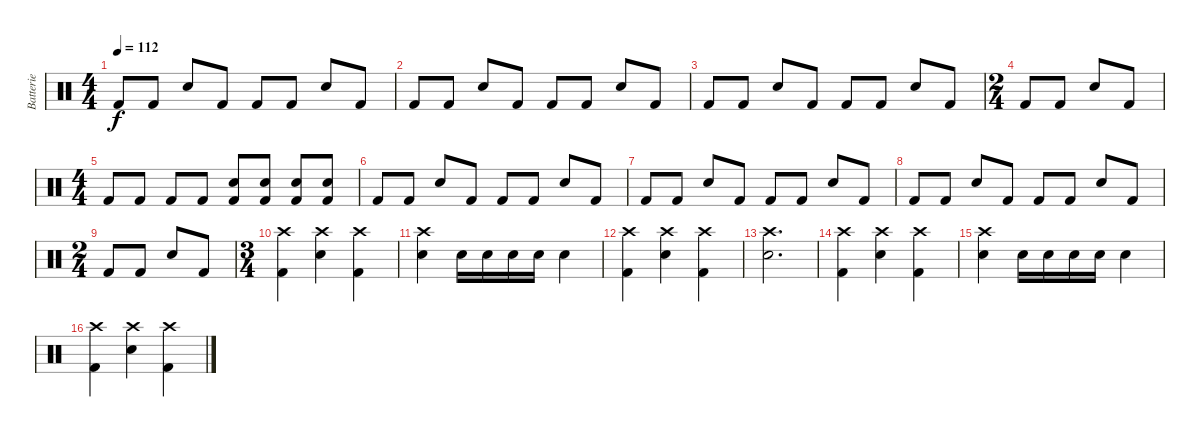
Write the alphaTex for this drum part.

\track ("Batterie" "Batterie") {instrument percussion}
\staff {score}
\articulation defaults
\ts (4 4)
\tempo 112
\clef neutral
\ks c "Kick (hit) 2".8{dy f} "Kick (hit) 2".8 "Snare (hit) 2".8 "Kick (hit) 2".8 "Kick (hit) 2".8 "Kick (hit) 2".8 "Snare (hit) 2".8 "Kick (hit) 2".8
|
"Kick (hit) 2".8 "Kick (hit) 2".8 "Snare (hit) 2".8 "Kick (hit) 2".8 "Kick (hit) 2".8 "Kick (hit) 2".8 "Snare (hit) 2".8 "Kick (hit) 2".8 |
"Kick (hit) 2".8 "Kick (hit) 2".8 "Snare (hit) 2".8 "Kick (hit) 2".8 "Kick (hit) 2".8 "Kick (hit) 2".8 "Snare (hit) 2".8 "Kick (hit) 2".8 |
\ts (2 4)
"Kick (hit) 2".8 "Kick (hit) 2".8 "Snare (hit) 2".8 "Kick (hit) 2".8 |
\ts (4 4)
"Kick (hit) 2".8 "Kick (hit) 2".8 "Kick (hit) 2".8 "Kick (hit) 2".8 ("Snare (hit) 2" "Kick (hit) 2").8 ("Snare (hit) 2" "Kick (hit) 2").8 ("Snare (hit) 2" "Kick (hit) 2").8 ("Snare (hit) 2" "Kick (hit) 2").8 |
"Kick (hit) 2".8 "Kick (hit) 2".8 "Snare (hit) 2".8 "Kick (hit) 2".8 "Kick (hit) 2".8 "Kick (hit) 2".8 "Snare (hit) 2".8 "Kick (hit) 2".8 |
"Kick (hit) 2".8 "Kick (hit) 2".8 "Snare (hit) 2".8 "Kick (hit) 2".8 "Kick (hit) 2".8 "Kick (hit) 2".8 "Snare (hit) 2".8 "Kick (hit) 2".8 |
"Kick (hit) 2".8 "Kick (hit) 2".8 "Snare (hit) 2".8 "Kick (hit) 2".8 "Kick (hit) 2".8 "Kick (hit) 2".8 "Snare (hit) 2".8 "Kick (hit) 2".8 |
\ts (2 4)
"Kick (hit) 2".8 "Kick (hit) 2".8 "Snare (hit) 2".8 "Kick (hit) 2".8 |
\ts (3 4)
("Crash high (hit)" "Kick (hit) 2").4 ("Crash high (hit)" "Snare (hit) 2").4 ("Crash high (hit)" "Kick (hit) 2").4 |
("Crash high (hit)" "Snare (hit) 2").4 "Snare (hit) 2".16 "Snare (hit) 2".16 "Snare (hit) 2".16 "Snare (hit) 2".16 "Snare (hit) 2".4 |
("Crash high (hit)" "Kick (hit) 2").4 ("Crash high (hit)" "Snare (hit) 2").4 ("Crash high (hit)" "Kick (hit) 2").4 |
("Crash high (hit)" "Snare (hit) 2").2{d} |
("Crash high (hit)" "Kick (hit) 2").4 ("Crash high (hit)" "Snare (hit) 2").4 ("Crash high (hit)" "Kick (hit) 2").4 |
("Crash high (hit)" "Snare (hit) 2").4 "Snare (hit) 2".16 "Snare (hit) 2".16 "Snare (hit) 2".16 "Snare (hit) 2".16 "Snare (hit) 2".4 |
("Crash high (hit)" "Kick (hit) 2").4 ("Crash high (hit)" "Snare (hit) 2").4 ("Crash high (hit)" "Kick (hit) 2").4
